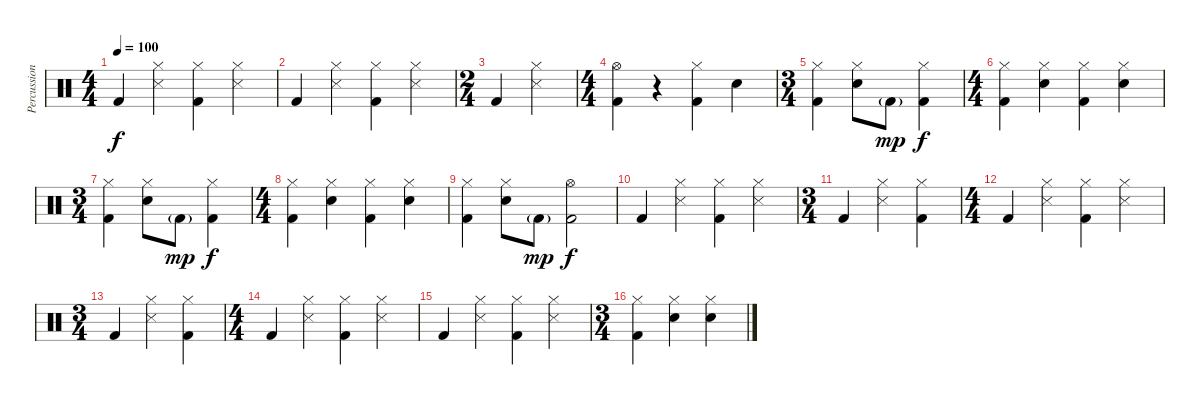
\track ("Percussion" "Percussion") {instrument percussion}
\staff {score}
\articulation defaults
\ts (4 4)
\tempo 100
\clef neutral
\ks c "Kick (hit) 2".4{dy f}
("Hi-Hat (closed)" "Snare (side stick) 3").4 ("Hi-Hat (closed)" "Kick (hit) 2").4 ("Hi-Hat (closed)" "Snare (side stick) 3").4 |
"Kick (hit) 2".4 ("Hi-Hat (closed)" "Snare (side stick) 3").4 ("Hi-Hat (closed)" "Kick (hit) 2").4 ("Hi-Hat (closed)" "Snare (side stick) 3").4 |
\ts (2 4)
"Kick (hit) 2".4 ("Hi-Hat (closed)" "Snare (side stick) 3").4 |
\ts (4 4)
("Hi-Hat (open)" "Kick (hit) 2").4 r.4 ("Hi-Hat (closed)" "Kick (hit) 2").4 "Snare (hit) 2".4 |
\ts (3 4)
("Hi-Hat (closed)" "Kick (hit) 2").4 ("Hi-Hat (closed)" "Snare (hit) 2").8 "Kick (hit) 2"{g}.8{dy mp} ("Hi-Hat (closed)" "Kick (hit) 2").4{dy f} |
\ts (4 4)
("Hi-Hat (closed)" "Kick (hit) 2").4 ("Hi-Hat (closed)" "Snare (hit) 2").4 ("Hi-Hat (closed)" "Kick (hit) 2").4 ("Hi-Hat (closed)" "Snare (hit) 2").4 |
\ts (3 4)
("Hi-Hat (closed)" "Kick (hit) 2").4 ("Hi-Hat (closed)" "Snare (hit) 2").8 "Kick (hit) 2"{g}.8{dy mp} ("Hi-Hat (closed)" "Kick (hit) 2").4{dy f} |
\ts (4 4)
("Hi-Hat (closed)" "Kick (hit) 2").4 ("Hi-Hat (closed)" "Snare (hit) 2").4 ("Hi-Hat (closed)" "Kick (hit) 2").4 ("Hi-Hat (closed)" "Snare (hit) 2").4 |
("Hi-Hat (closed)" "Kick (hit) 2").4 ("Hi-Hat (closed)" "Snare (hit) 2").8 "Kick (hit) 2"{g}.8{dy mp} ("Hi-Hat (open)" "Kick (hit) 2").2{dy f} |
"Kick (hit) 2".4 ("Hi-Hat (closed)" "Snare (side stick) 3").4 ("Hi-Hat (closed)" "Kick (hit) 2").4 ("Hi-Hat (closed)" "Snare (side stick) 3").4 |
\ts (3 4)
"Kick (hit) 2".4 ("Hi-Hat (closed)" "Snare (side stick) 3").4 ("Hi-Hat (closed)" "Kick (hit) 2").4 |
\ts (4 4)
"Kick (hit) 2".4 ("Hi-Hat (closed)" "Snare (side stick) 3").4 ("Hi-Hat (closed)" "Kick (hit) 2").4 ("Hi-Hat (closed)" "Snare (side stick) 3").4 |
\ts (3 4)
"Kick (hit) 2".4 ("Hi-Hat (closed)" "Snare (side stick) 3").4 ("Hi-Hat (closed)" "Kick (hit) 2").4 |
\ts (4 4)
"Kick (hit) 2".4 ("Hi-Hat (closed)" "Snare (side stick) 3").4 ("Hi-Hat (closed)" "Kick (hit) 2").4 ("Hi-Hat (closed)" "Snare (side stick) 3").4 |
"Kick (hit) 2".4 ("Hi-Hat (closed)" "Snare (side stick) 3").4 ("Hi-Hat (closed)" "Kick (hit) 2").4 ("Hi-Hat (closed)" "Snare (side stick) 3").4 |
\ts (3 4)
("Hi-Hat (closed)" "Kick (hit) 2").4 ("Hi-Hat (closed)" "Snare (hit) 2").4 ("Hi-Hat (closed)" "Snare (hit) 2").4
